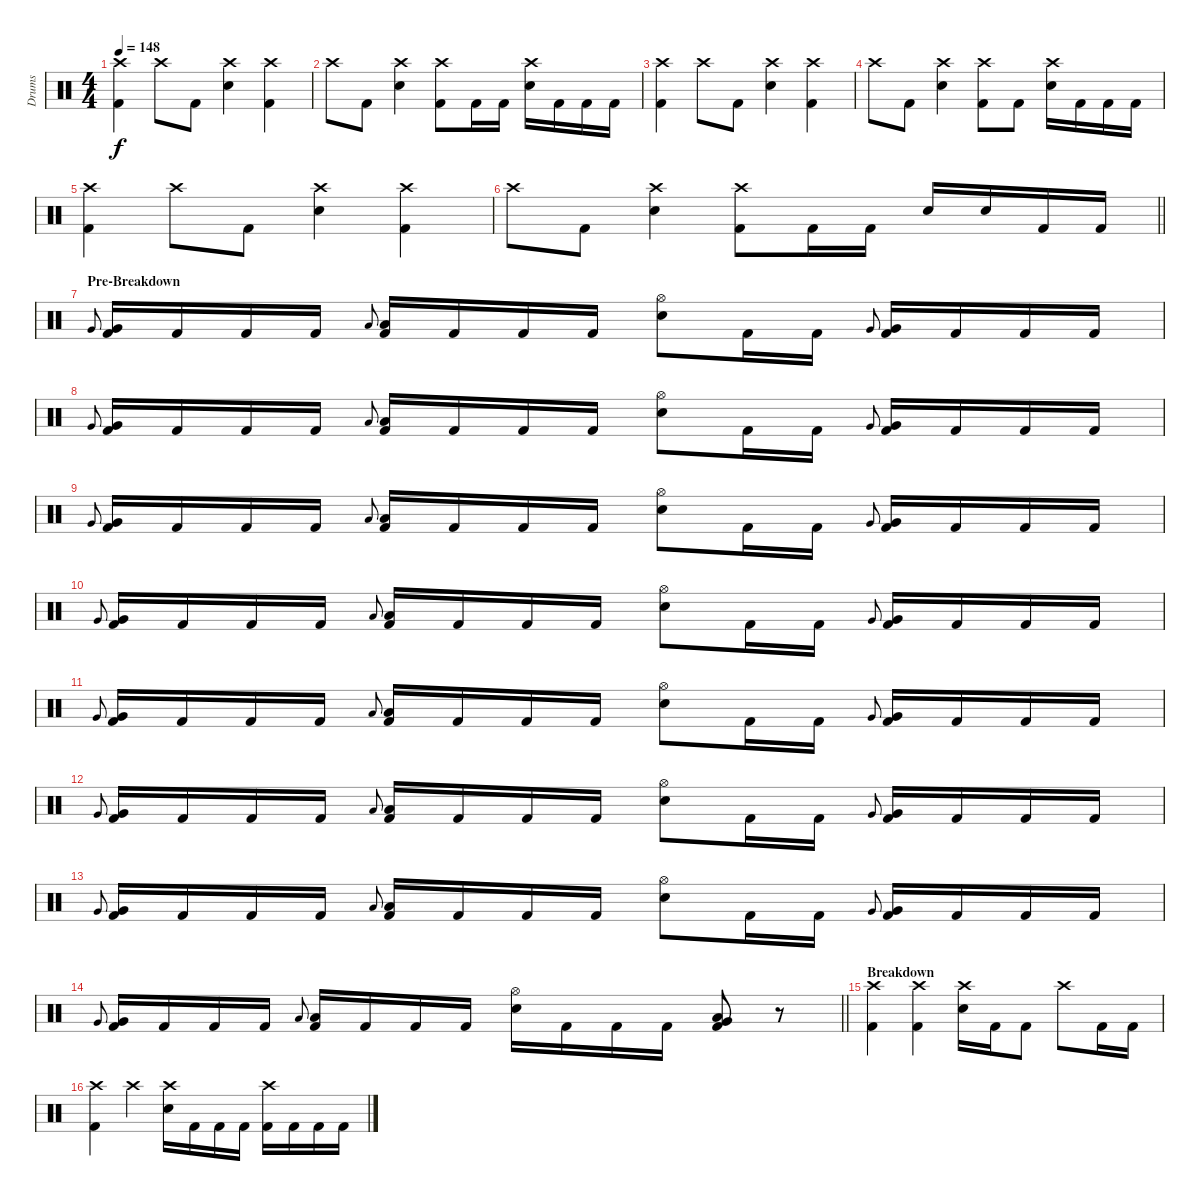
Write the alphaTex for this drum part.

\track ("Drums" "Drums") {instrument percussion}
\staff {score}
\articulation defaults
\ts (4 4)
\tempo 148
\clef neutral
\ks c
("Crash high (hit)" "Kick (hit) 2").4{dy f} "Crash high (hit)".8 "Kick (hit) 2".8 ("Crash high (hit)" "Snare (hit) 2").4 ("Crash high (hit)" "Kick (hit) 2").4 |
"Crash high (hit)".8 "Kick (hit) 2".8 ("Crash high (hit)" "Snare (hit) 2").4 ("Crash high (hit)" "Kick (hit) 2").8 "Kick (hit) 2".16 "Kick (hit) 2".16 ("Crash high (hit)" "Snare (hit) 2").16 "Kick (hit) 2".16 "Kick (hit) 2".16 "Kick (hit) 2".16 |
("Crash high (hit)" "Kick (hit) 2").4 "Crash high (hit)".8 "Kick (hit) 2".8 ("Crash high (hit)" "Snare (hit) 2").4 ("Crash high (hit)" "Kick (hit) 2").4 |
"Crash high (hit)".8 "Kick (hit) 2".8 ("Crash high (hit)" "Snare (hit) 2").4 ("Crash high (hit)" "Kick (hit) 2").8 "Kick (hit) 2".8 ("Crash high (hit)" "Snare (hit) 2").16 "Kick (hit) 2".16 "Kick (hit) 2".16 "Kick (hit) 2".16 |
("Crash high (hit)" "Kick (hit) 2").4 "Crash high (hit)".8 "Kick (hit) 2".8 ("Crash high (hit)" "Snare (hit) 2").4 ("Crash high (hit)" "Kick (hit) 2").4 |
\barLineRight lightlight "Crash high (hit)".8 "Kick (hit) 2".8
("Crash high (hit)" "Snare (hit) 2").4 ("Crash high (hit)" "Kick (hit) 2").8 "Kick (hit) 2".16 "Kick (hit) 2".16 "Snare (hit) 2".16 "Snare (hit) 2".16 "Kick (hit) 2".16 "Kick (hit) 2".16 |
\section ("" "Pre-Breakdown")
"Very Low Tom (hit)".8{gr onbeat} ("Very Low Tom (hit)" "Kick (hit) 2").16 "Kick (hit) 2".16 "Kick (hit) 2".16 "Kick (hit) 2".16 "Low Floor Tom (hit)".8{gr onbeat} ("Low Floor Tom (hit)" "Kick (hit) 2").16 "Kick (hit) 2".16 "Kick (hit) 2".16 "Kick (hit) 2".16 ("Snare (hit) 2" "Hi-Hat (open)").8 "Kick (hit) 2".16 "Kick (hit) 2".16 "Very Low Tom (hit)".8{gr onbeat} ("Very Low Tom (hit)" "Kick (hit) 2").16 "Kick (hit) 2".16 "Kick (hit) 2".16 "Kick (hit) 2".16 |
"Very Low Tom (hit)".8{gr onbeat} ("Very Low Tom (hit)" "Kick (hit) 2").16 "Kick (hit) 2".16 "Kick (hit) 2".16 "Kick (hit) 2".16 "Low Floor Tom (hit)".8{gr onbeat} ("Low Floor Tom (hit)" "Kick (hit) 2").16 "Kick (hit) 2".16 "Kick (hit) 2".16 "Kick (hit) 2".16 ("Snare (hit) 2" "Hi-Hat (open)").8 "Kick (hit) 2".16 "Kick (hit) 2".16 "Very Low Tom (hit)".8{gr onbeat} ("Very Low Tom (hit)" "Kick (hit) 2").16 "Kick (hit) 2".16 "Kick (hit) 2".16 "Kick (hit) 2".16 |
"Very Low Tom (hit)".8{gr onbeat} ("Very Low Tom (hit)" "Kick (hit) 2").16 "Kick (hit) 2".16 "Kick (hit) 2".16 "Kick (hit) 2".16 "Low Floor Tom (hit)".8{gr onbeat} ("Low Floor Tom (hit)" "Kick (hit) 2").16 "Kick (hit) 2".16 "Kick (hit) 2".16 "Kick (hit) 2".16 ("Snare (hit) 2" "Hi-Hat (open)").8 "Kick (hit) 2".16 "Kick (hit) 2".16 "Very Low Tom (hit)".8{gr onbeat} ("Very Low Tom (hit)" "Kick (hit) 2").16 "Kick (hit) 2".16 "Kick (hit) 2".16 "Kick (hit) 2".16 |
"Very Low Tom (hit)".8{gr onbeat} ("Very Low Tom (hit)" "Kick (hit) 2").16 "Kick (hit) 2".16 "Kick (hit) 2".16 "Kick (hit) 2".16 "Low Floor Tom (hit)".8{gr onbeat} ("Low Floor Tom (hit)" "Kick (hit) 2").16 "Kick (hit) 2".16 "Kick (hit) 2".16 "Kick (hit) 2".16 ("Snare (hit) 2" "Hi-Hat (open)").8 "Kick (hit) 2".16 "Kick (hit) 2".16 "Very Low Tom (hit)".8{gr onbeat} ("Very Low Tom (hit)" "Kick (hit) 2").16 "Kick (hit) 2".16 "Kick (hit) 2".16 "Kick (hit) 2".16 |
"Very Low Tom (hit)".8{gr onbeat} ("Very Low Tom (hit)" "Kick (hit) 2").16 "Kick (hit) 2".16 "Kick (hit) 2".16 "Kick (hit) 2".16 "Low Floor Tom (hit)".8{gr onbeat} ("Low Floor Tom (hit)" "Kick (hit) 2").16 "Kick (hit) 2".16 "Kick (hit) 2".16 "Kick (hit) 2".16 ("Snare (hit) 2" "Hi-Hat (open)").8 "Kick (hit) 2".16 "Kick (hit) 2".16 "Very Low Tom (hit)".8{gr onbeat} ("Very Low Tom (hit)" "Kick (hit) 2").16 "Kick (hit) 2".16 "Kick (hit) 2".16 "Kick (hit) 2".16 |
"Very Low Tom (hit)".8{gr onbeat} ("Very Low Tom (hit)" "Kick (hit) 2").16 "Kick (hit) 2".16 "Kick (hit) 2".16 "Kick (hit) 2".16 "Low Floor Tom (hit)".8{gr onbeat} ("Low Floor Tom (hit)" "Kick (hit) 2").16 "Kick (hit) 2".16 "Kick (hit) 2".16 "Kick (hit) 2".16 ("Snare (hit) 2" "Hi-Hat (open)").8 "Kick (hit) 2".16 "Kick (hit) 2".16 "Very Low Tom (hit)".8{gr onbeat} ("Very Low Tom (hit)" "Kick (hit) 2").16 "Kick (hit) 2".16 "Kick (hit) 2".16 "Kick (hit) 2".16 |
"Very Low Tom (hit)".8{gr onbeat} ("Very Low Tom (hit)" "Kick (hit) 2").16 "Kick (hit) 2".16 "Kick (hit) 2".16 "Kick (hit) 2".16 "Low Floor Tom (hit)".8{gr onbeat} ("Low Floor Tom (hit)" "Kick (hit) 2").16 "Kick (hit) 2".16 "Kick (hit) 2".16 "Kick (hit) 2".16 ("Snare (hit) 2" "Hi-Hat (open)").8 "Kick (hit) 2".16 "Kick (hit) 2".16 "Very Low Tom (hit)".8{gr onbeat} ("Very Low Tom (hit)" "Kick (hit) 2").16 "Kick (hit) 2".16 "Kick (hit) 2".16 "Kick (hit) 2".16 |
\barLineRight lightlight "Very Low Tom (hit)".8{gr onbeat}
("Very Low Tom (hit)" "Kick (hit) 2").16 "Kick (hit) 2".16 "Kick (hit) 2".16 "Kick (hit) 2".16 "Low Floor Tom (hit)".8{gr onbeat} ("Low Floor Tom (hit)" "Kick (hit) 2").16 "Kick (hit) 2".16 "Kick (hit) 2".16 "Kick (hit) 2".16 ("Snare (hit) 2" "Hi-Hat (open)").16 "Kick (hit) 2".16 "Kick (hit) 2".16 "Kick (hit) 2".16 ("Very Low Tom (hit)" "Low Floor Tom (hit)" "Kick (hit) 2").8 r.8 |
\section ("" "Breakdown")
("Crash high (hit)" "Kick (hit) 2").4 ("Crash high (hit)" "Kick (hit) 2").4 ("Crash high (hit)" "Snare (hit) 2").16 "Kick (hit) 2".16 "Kick (hit) 2".8 "Crash high (hit)".8 "Kick (hit) 2".16 "Kick (hit) 2".16 |
("Crash high (hit)" "Kick (hit) 2").4 "Crash high (hit)".4 ("Crash high (hit)" "Snare (hit) 2").16 "Kick (hit) 2".16 "Kick (hit) 2".16 "Kick (hit) 2".16 ("Crash high (hit)" "Kick (hit) 2").16 "Kick (hit) 2".16 "Kick (hit) 2".16 "Kick (hit) 2".16
